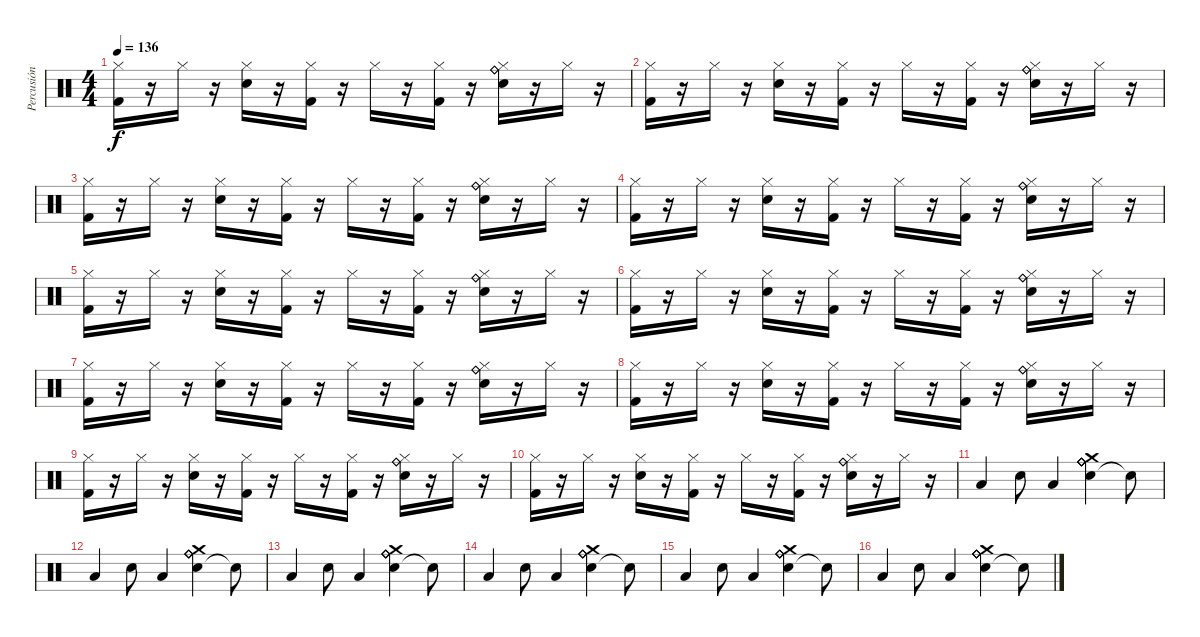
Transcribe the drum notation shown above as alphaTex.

\track ("Percusión" "Percusión") {instrument percussion}
\staff {score}
\articulation defaults
\ts (4 4)
\tempo 136
\clef neutral
\ks c
("Kick (hit) 2" "Hi-Hat (closed)").16{dy f} r.16 "Hi-Hat (closed)".16 r.16 ("Electric Snare (hit)" "Hi-Hat (closed)").16 r.16 ("Kick (hit) 2" "Hi-Hat (closed)").16 r.16 "Hi-Hat (closed)".16 r.16 ("Kick (hit) 2" "Hi-Hat (closed)").16 r.16 ("Electric Snare (hit)" "Hi-Hat (closed)" "Ride (bell)" "Ride (bell)").16 r.16 "Hi-Hat (closed)".16 r.16 |
("Kick (hit) 2" "Hi-Hat (closed)").16 r.16 "Hi-Hat (closed)".16 r.16 ("Electric Snare (hit)" "Hi-Hat (closed)").16 r.16 ("Kick (hit) 2" "Hi-Hat (closed)").16 r.16 "Hi-Hat (closed)".16 r.16 ("Kick (hit) 2" "Hi-Hat (closed)").16 r.16 ("Electric Snare (hit)" "Hi-Hat (closed)" "Ride (bell)" "Ride (bell)").16 r.16 "Hi-Hat (closed)".16 r.16 |
("Kick (hit) 2" "Hi-Hat (closed)").16 r.16 "Hi-Hat (closed)".16 r.16 ("Electric Snare (hit)" "Hi-Hat (closed)").16 r.16 ("Kick (hit) 2" "Hi-Hat (closed)").16 r.16 "Hi-Hat (closed)".16 r.16 ("Kick (hit) 2" "Hi-Hat (closed)").16 r.16 ("Electric Snare (hit)" "Hi-Hat (closed)" "Ride (bell)" "Ride (bell)").16 r.16 "Hi-Hat (closed)".16 r.16 |
("Kick (hit) 2" "Hi-Hat (closed)").16 r.16 "Hi-Hat (closed)".16 r.16 ("Electric Snare (hit)" "Hi-Hat (closed)").16 r.16 ("Kick (hit) 2" "Hi-Hat (closed)").16 r.16 "Hi-Hat (closed)".16 r.16 ("Kick (hit) 2" "Hi-Hat (closed)").16 r.16 ("Electric Snare (hit)" "Hi-Hat (closed)" "Ride (bell)" "Ride (bell)").16 r.16 "Hi-Hat (closed)".16 r.16 |
("Kick (hit) 2" "Hi-Hat (closed)").16 r.16 "Hi-Hat (closed)".16 r.16 ("Electric Snare (hit)" "Hi-Hat (closed)").16 r.16 ("Kick (hit) 2" "Hi-Hat (closed)").16 r.16 "Hi-Hat (closed)".16 r.16 ("Kick (hit) 2" "Hi-Hat (closed)").16 r.16 ("Electric Snare (hit)" "Hi-Hat (closed)" "Ride (bell)" "Ride (bell)").16 r.16 "Hi-Hat (closed)".16 r.16 |
("Kick (hit) 2" "Hi-Hat (closed)").16 r.16 "Hi-Hat (closed)".16 r.16 ("Electric Snare (hit)" "Hi-Hat (closed)").16 r.16 ("Kick (hit) 2" "Hi-Hat (closed)").16 r.16 "Hi-Hat (closed)".16 r.16 ("Kick (hit) 2" "Hi-Hat (closed)").16 r.16 ("Electric Snare (hit)" "Hi-Hat (closed)" "Ride (bell)" "Ride (bell)").16 r.16 "Hi-Hat (closed)".16 r.16 |
("Kick (hit) 2" "Hi-Hat (closed)").16 r.16 "Hi-Hat (closed)".16 r.16 ("Electric Snare (hit)" "Hi-Hat (closed)").16 r.16 ("Kick (hit) 2" "Hi-Hat (closed)").16 r.16 "Hi-Hat (closed)".16 r.16 ("Kick (hit) 2" "Hi-Hat (closed)").16 r.16 ("Electric Snare (hit)" "Hi-Hat (closed)" "Ride (bell)" "Ride (bell)").16 r.16 "Hi-Hat (closed)".16 r.16 |
("Kick (hit) 2" "Hi-Hat (closed)").16 r.16 "Hi-Hat (closed)".16 r.16 ("Electric Snare (hit)" "Hi-Hat (closed)").16 r.16 ("Kick (hit) 2" "Hi-Hat (closed)").16 r.16 "Hi-Hat (closed)".16 r.16 ("Kick (hit) 2" "Hi-Hat (closed)").16 r.16 ("Electric Snare (hit)" "Hi-Hat (closed)" "Ride (bell)" "Ride (bell)").16 r.16 "Hi-Hat (closed)".16 r.16 |
("Kick (hit) 2" "Hi-Hat (closed)").16 r.16 "Hi-Hat (closed)".16 r.16 ("Electric Snare (hit)" "Hi-Hat (closed)").16 r.16 ("Kick (hit) 2" "Hi-Hat (closed)").16 r.16 "Hi-Hat (closed)".16 r.16 ("Kick (hit) 2" "Hi-Hat (closed)").16 r.16 ("Electric Snare (hit)" "Hi-Hat (closed)" "Ride (bell)" "Ride (bell)").16 r.16 "Hi-Hat (closed)".16 r.16 |
("Kick (hit) 2" "Hi-Hat (closed)").16 r.16 "Hi-Hat (closed)".16 r.16 ("Electric Snare (hit)" "Hi-Hat (closed)").16 r.16 ("Kick (hit) 2" "Hi-Hat (closed)").16 r.16 "Hi-Hat (closed)".16 r.16 ("Kick (hit) 2" "Hi-Hat (closed)").16 r.16 ("Electric Snare (hit)" "Hi-Hat (closed)" "Ride (bell)" "Ride (bell)").16 r.16 "Hi-Hat (closed)".16 r.16 |
"Low Tom (hit)".4 "Electric Snare (hit)".8 "Low Tom (hit)".4 ("Electric Snare (hit)" "Crash medium (hit)" "Ride (bell)" "Ride (bell)" "Ride (bell)" "Ride (bell)").4 "Snare (hit)"{t}.8 |
"Low Tom (hit)".4 "Electric Snare (hit)".8 "Low Tom (hit)".4 ("Electric Snare (hit)" "Crash medium (hit)" "Ride (bell)" "Ride (bell)" "Ride (bell)" "Ride (bell)").4 "Snare (hit)"{t}.8 |
"Low Tom (hit)".4 "Electric Snare (hit)".8 "Low Tom (hit)".4 ("Electric Snare (hit)" "Crash medium (hit)" "Ride (bell)" "Ride (bell)" "Ride (bell)" "Ride (bell)").4 "Snare (hit)"{t}.8 |
"Low Tom (hit)".4 "Electric Snare (hit)".8 "Low Tom (hit)".4 ("Electric Snare (hit)" "Crash medium (hit)" "Ride (bell)" "Ride (bell)" "Ride (bell)" "Ride (bell)").4 "Snare (hit)"{t}.8 |
"Low Tom (hit)".4 "Electric Snare (hit)".8 "Low Tom (hit)".4 ("Electric Snare (hit)" "Crash medium (hit)" "Ride (bell)" "Ride (bell)" "Ride (bell)" "Ride (bell)").4 "Snare (hit)"{t}.8 |
"Low Tom (hit)".4 "Electric Snare (hit)".8 "Low Tom (hit)".4 ("Electric Snare (hit)" "Crash medium (hit)" "Ride (bell)" "Ride (bell)" "Ride (bell)" "Ride (bell)").4 "Snare (hit)"{t}.8
